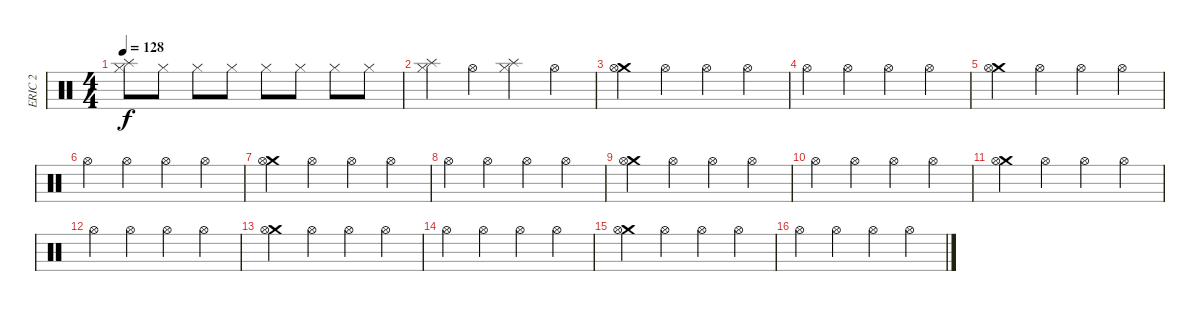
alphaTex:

\track ("ERIC 2" "ERIC 2") {instrument percussion}
\staff {score}
\articulation defaults
\ts (4 4)
\tempo 128
\clef neutral
\ks c
("Splash (hit)" "Hi-Hat (closed)").8{dy f} "Hi-Hat (closed)".8 "Hi-Hat (closed)".8 "Hi-Hat (closed)".8 "Hi-Hat (closed)".8 "Hi-Hat (closed)".8 "Hi-Hat (closed)".8 "Hi-Hat (closed)".8 |
("Splash (hit)" "Hi-Hat (closed)").4 "Hi-Hat (open)".4 ("Splash (hit)" "Hi-Hat (closed)").4 "Hi-Hat (open)".4 |
("Crash medium (hit)" "Hi-Hat (open)").4 "Hi-Hat (open)".4 "Hi-Hat (open)".4 "Hi-Hat (open)".4 |
"Hi-Hat (open)".4 "Hi-Hat (open)".4 "Hi-Hat (open)".4 "Hi-Hat (open)".4 |
("Crash medium (hit)" "Hi-Hat (open)").4 "Hi-Hat (open)".4 "Hi-Hat (open)".4 "Hi-Hat (open)".4 |
"Hi-Hat (open)".4 "Hi-Hat (open)".4 "Hi-Hat (open)".4 "Hi-Hat (open)".4 |
("Crash medium (hit)" "Hi-Hat (open)").4 "Hi-Hat (open)".4 "Hi-Hat (open)".4 "Hi-Hat (open)".4 |
"Hi-Hat (open)".4 "Hi-Hat (open)".4 "Hi-Hat (open)".4 "Hi-Hat (open)".4 |
("Crash medium (hit)" "Hi-Hat (open)").4 "Hi-Hat (open)".4 "Hi-Hat (open)".4 "Hi-Hat (open)".4 |
"Hi-Hat (open)".4 "Hi-Hat (open)".4 "Hi-Hat (open)".4 "Hi-Hat (open)".4 |
("Crash medium (hit)" "Hi-Hat (open)").4 "Hi-Hat (open)".4 "Hi-Hat (open)".4 "Hi-Hat (open)".4 |
"Hi-Hat (open)".4 "Hi-Hat (open)".4 "Hi-Hat (open)".4 "Hi-Hat (open)".4 |
("Crash medium (hit)" "Hi-Hat (open)").4 "Hi-Hat (open)".4 "Hi-Hat (open)".4 "Hi-Hat (open)".4 |
"Hi-Hat (open)".4 "Hi-Hat (open)".4 "Hi-Hat (open)".4 "Hi-Hat (open)".4 |
("Crash medium (hit)" "Hi-Hat (open)").4 "Hi-Hat (open)".4 "Hi-Hat (open)".4 "Hi-Hat (open)".4 |
"Hi-Hat (open)".4 "Hi-Hat (open)".4 "Hi-Hat (open)".4 "Hi-Hat (open)".4
